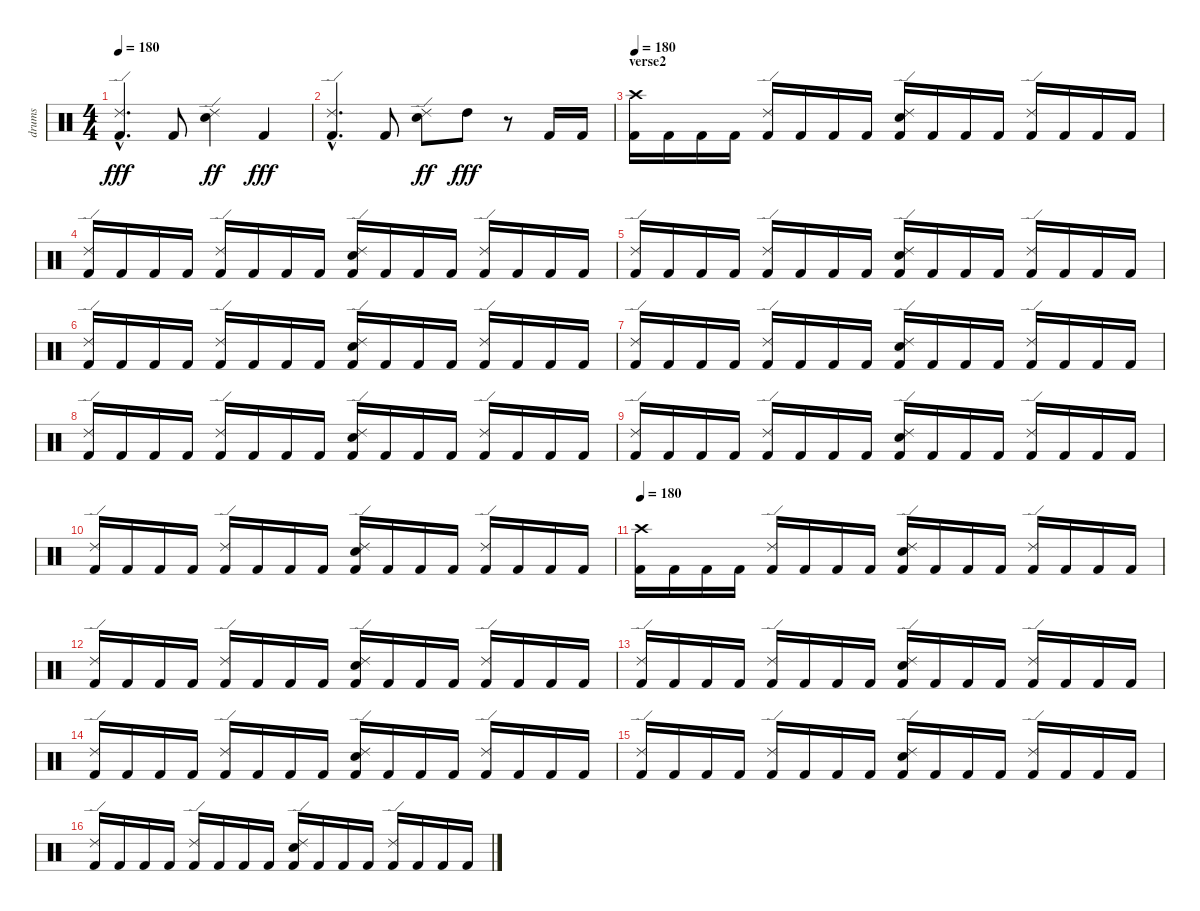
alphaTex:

\track ("drums" "drums") {instrument percussion}
\staff {score}
\articulation defaults
\ts (4 4)
\tempo 180
\clef neutral
\ks c
("Ride (edge) 2"{hac} "Kick (hit) 2"{hac}).4{d dy fff} "Kick (hit) 2".8 ("Ride (edge) 2" "Snare (hit) 2").4{dy ff} "Kick (hit) 2".4{dy fff} |
("Ride (edge) 2"{hac} "Kick (hit) 2"{hac}).4{d} "Kick (hit) 2".8 ("Ride (edge) 2" "Snare (hit) 2").8{dy ff} "High Tom (hit)".8{dy fff} r.8 "Kick (hit) 2".16 "Kick (hit) 2".16 |
\section ("" "verse2")
\tempo 180
("Crash high (hit)" "Kick (hit) 2").16 "Kick (hit) 2".16 "Kick (hit) 2".16 "Kick (hit) 2".16 ("Ride (edge) 2" "Kick (hit) 2").16 "Kick (hit) 2".16 "Kick (hit) 2".16 "Kick (hit) 2".16 ("Ride (edge) 2" "Snare (hit) 2" "Kick (hit) 2").16 "Kick (hit) 2".16 "Kick (hit) 2".16 "Kick (hit) 2".16 ("Ride (edge) 2" "Kick (hit) 2").16 "Kick (hit) 2".16 "Kick (hit) 2".16 "Kick (hit) 2".16 |
("Ride (edge) 2" "Kick (hit) 2").16 "Kick (hit) 2".16 "Kick (hit) 2".16 "Kick (hit) 2".16 ("Ride (edge) 2" "Kick (hit) 2").16 "Kick (hit) 2".16 "Kick (hit) 2".16 "Kick (hit) 2".16 ("Ride (edge) 2" "Snare (hit) 2" "Kick (hit) 2").16 "Kick (hit) 2".16 "Kick (hit) 2".16 "Kick (hit) 2".16 ("Ride (edge) 2" "Kick (hit) 2").16 "Kick (hit) 2".16 "Kick (hit) 2".16 "Kick (hit) 2".16 |
("Ride (edge) 2" "Kick (hit) 2").16 "Kick (hit) 2".16 "Kick (hit) 2".16 "Kick (hit) 2".16 ("Ride (edge) 2" "Kick (hit) 2").16 "Kick (hit) 2".16 "Kick (hit) 2".16 "Kick (hit) 2".16 ("Ride (edge) 2" "Snare (hit) 2" "Kick (hit) 2").16 "Kick (hit) 2".16 "Kick (hit) 2".16 "Kick (hit) 2".16 ("Ride (edge) 2" "Kick (hit) 2").16 "Kick (hit) 2".16 "Kick (hit) 2".16 "Kick (hit) 2".16 |
("Ride (edge) 2" "Kick (hit) 2").16 "Kick (hit) 2".16 "Kick (hit) 2".16 "Kick (hit) 2".16 ("Ride (edge) 2" "Kick (hit) 2").16 "Kick (hit) 2".16 "Kick (hit) 2".16 "Kick (hit) 2".16 ("Ride (edge) 2" "Snare (hit) 2" "Kick (hit) 2").16 "Kick (hit) 2".16 "Kick (hit) 2".16 "Kick (hit) 2".16 ("Ride (edge) 2" "Kick (hit) 2").16 "Kick (hit) 2".16 "Kick (hit) 2".16 "Kick (hit) 2".16 |
("Ride (edge) 2" "Kick (hit) 2").16 "Kick (hit) 2".16 "Kick (hit) 2".16 "Kick (hit) 2".16 ("Ride (edge) 2" "Kick (hit) 2").16 "Kick (hit) 2".16 "Kick (hit) 2".16 "Kick (hit) 2".16 ("Ride (edge) 2" "Snare (hit) 2" "Kick (hit) 2").16 "Kick (hit) 2".16 "Kick (hit) 2".16 "Kick (hit) 2".16 ("Ride (edge) 2" "Kick (hit) 2").16 "Kick (hit) 2".16 "Kick (hit) 2".16 "Kick (hit) 2".16 |
("Ride (edge) 2" "Kick (hit) 2").16 "Kick (hit) 2".16 "Kick (hit) 2".16 "Kick (hit) 2".16 ("Ride (edge) 2" "Kick (hit) 2").16 "Kick (hit) 2".16 "Kick (hit) 2".16 "Kick (hit) 2".16 ("Ride (edge) 2" "Snare (hit) 2" "Kick (hit) 2").16 "Kick (hit) 2".16 "Kick (hit) 2".16 "Kick (hit) 2".16 ("Ride (edge) 2" "Kick (hit) 2").16 "Kick (hit) 2".16 "Kick (hit) 2".16 "Kick (hit) 2".16 |
("Ride (edge) 2" "Kick (hit) 2").16 "Kick (hit) 2".16 "Kick (hit) 2".16 "Kick (hit) 2".16 ("Ride (edge) 2" "Kick (hit) 2").16 "Kick (hit) 2".16 "Kick (hit) 2".16 "Kick (hit) 2".16 ("Ride (edge) 2" "Snare (hit) 2" "Kick (hit) 2").16 "Kick (hit) 2".16 "Kick (hit) 2".16 "Kick (hit) 2".16 ("Ride (edge) 2" "Kick (hit) 2").16 "Kick (hit) 2".16 "Kick (hit) 2".16 "Kick (hit) 2".16 |
("Ride (edge) 2" "Kick (hit) 2").16 "Kick (hit) 2".16 "Kick (hit) 2".16 "Kick (hit) 2".16 ("Ride (edge) 2" "Kick (hit) 2").16 "Kick (hit) 2".16 "Kick (hit) 2".16 "Kick (hit) 2".16 ("Ride (edge) 2" "Snare (hit) 2" "Kick (hit) 2").16 "Kick (hit) 2".16 "Kick (hit) 2".16 "Kick (hit) 2".16 ("Ride (edge) 2" "Kick (hit) 2").16 "Kick (hit) 2".16 "Kick (hit) 2".16 "Kick (hit) 2".16 |
\tempo 180
("Crash high (hit)" "Kick (hit) 2").16 "Kick (hit) 2".16 "Kick (hit) 2".16 "Kick (hit) 2".16 ("Ride (edge) 2" "Kick (hit) 2").16 "Kick (hit) 2".16 "Kick (hit) 2".16 "Kick (hit) 2".16 ("Ride (edge) 2" "Snare (hit) 2" "Kick (hit) 2").16 "Kick (hit) 2".16 "Kick (hit) 2".16 "Kick (hit) 2".16 ("Ride (edge) 2" "Kick (hit) 2").16 "Kick (hit) 2".16 "Kick (hit) 2".16 "Kick (hit) 2".16 |
("Ride (edge) 2" "Kick (hit) 2").16 "Kick (hit) 2".16 "Kick (hit) 2".16 "Kick (hit) 2".16 ("Ride (edge) 2" "Kick (hit) 2").16 "Kick (hit) 2".16 "Kick (hit) 2".16 "Kick (hit) 2".16 ("Ride (edge) 2" "Snare (hit) 2" "Kick (hit) 2").16 "Kick (hit) 2".16 "Kick (hit) 2".16 "Kick (hit) 2".16 ("Ride (edge) 2" "Kick (hit) 2").16 "Kick (hit) 2".16 "Kick (hit) 2".16 "Kick (hit) 2".16 |
("Ride (edge) 2" "Kick (hit) 2").16 "Kick (hit) 2".16 "Kick (hit) 2".16 "Kick (hit) 2".16 ("Ride (edge) 2" "Kick (hit) 2").16 "Kick (hit) 2".16 "Kick (hit) 2".16 "Kick (hit) 2".16 ("Ride (edge) 2" "Snare (hit) 2" "Kick (hit) 2").16 "Kick (hit) 2".16 "Kick (hit) 2".16 "Kick (hit) 2".16 ("Ride (edge) 2" "Kick (hit) 2").16 "Kick (hit) 2".16 "Kick (hit) 2".16 "Kick (hit) 2".16 |
("Ride (edge) 2" "Kick (hit) 2").16 "Kick (hit) 2".16 "Kick (hit) 2".16 "Kick (hit) 2".16 ("Ride (edge) 2" "Kick (hit) 2").16 "Kick (hit) 2".16 "Kick (hit) 2".16 "Kick (hit) 2".16 ("Ride (edge) 2" "Snare (hit) 2" "Kick (hit) 2").16 "Kick (hit) 2".16 "Kick (hit) 2".16 "Kick (hit) 2".16 ("Ride (edge) 2" "Kick (hit) 2").16 "Kick (hit) 2".16 "Kick (hit) 2".16 "Kick (hit) 2".16 |
("Ride (edge) 2" "Kick (hit) 2").16 "Kick (hit) 2".16 "Kick (hit) 2".16 "Kick (hit) 2".16 ("Ride (edge) 2" "Kick (hit) 2").16 "Kick (hit) 2".16 "Kick (hit) 2".16 "Kick (hit) 2".16 ("Ride (edge) 2" "Snare (hit) 2" "Kick (hit) 2").16 "Kick (hit) 2".16 "Kick (hit) 2".16 "Kick (hit) 2".16 ("Ride (edge) 2" "Kick (hit) 2").16 "Kick (hit) 2".16 "Kick (hit) 2".16 "Kick (hit) 2".16 |
("Ride (edge) 2" "Kick (hit) 2").16 "Kick (hit) 2".16 "Kick (hit) 2".16 "Kick (hit) 2".16 ("Ride (edge) 2" "Kick (hit) 2").16 "Kick (hit) 2".16 "Kick (hit) 2".16 "Kick (hit) 2".16 ("Ride (edge) 2" "Snare (hit) 2" "Kick (hit) 2").16 "Kick (hit) 2".16 "Kick (hit) 2".16 "Kick (hit) 2".16 ("Ride (edge) 2" "Kick (hit) 2").16 "Kick (hit) 2".16 "Kick (hit) 2".16 "Kick (hit) 2".16
